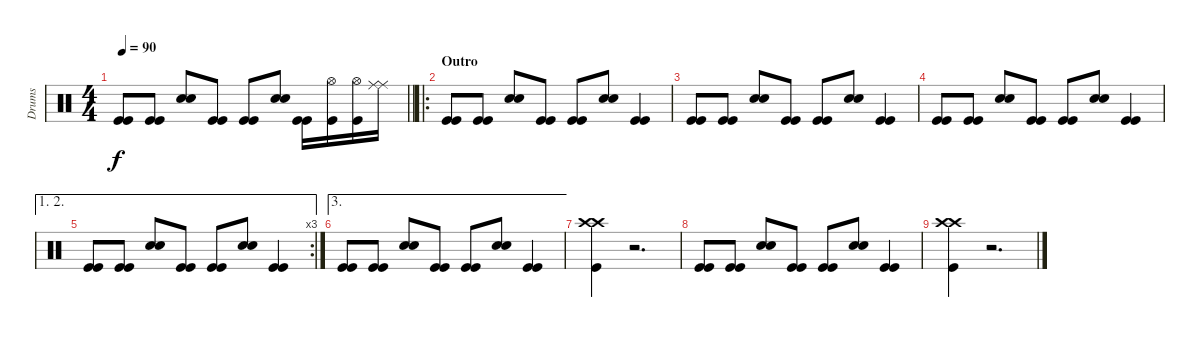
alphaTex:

\track ("Drums" "Drums") {instrument percussion}
\staff {score}
\articulation defaults
\ts (4 4)
\tempo 90
\clef neutral
\barLineRight lightlight
\ks c
("Kick (hit)" "Kick (hit)").8{dy f} ("Kick (hit)" "Kick (hit)").8 ("Electric Snare (hit)" "Electric Snare (hit)").8 ("Kick (hit)" "Kick (hit)").8 ("Kick (hit)" "Kick (hit)").8 ("Electric Snare (hit)" "Electric Snare (hit)").8 ("Kick (hit)" "Kick (hit)").16 ("Hi-Hat (open)" "Kick (hit)").16 ("Hi-Hat (open)" "Kick (hit)").16 ("Ride (middle)" "Ride (middle)").16 |
\ro
\section ("" "Outro")
("Kick (hit)" "Kick (hit)").8 ("Kick (hit)" "Kick (hit)").8 ("Electric Snare (hit)" "Electric Snare (hit)").8 ("Kick (hit)" "Kick (hit)").8 ("Kick (hit)" "Kick (hit)").8 ("Electric Snare (hit)" "Electric Snare (hit)").8 ("Kick (hit)" "Kick (hit)").4 |
("Kick (hit)" "Kick (hit)").8 ("Kick (hit)" "Kick (hit)").8 ("Electric Snare (hit)" "Electric Snare (hit)").8 ("Kick (hit)" "Kick (hit)").8 ("Kick (hit)" "Kick (hit)").8 ("Electric Snare (hit)" "Electric Snare (hit)").8 ("Kick (hit)" "Kick (hit)").4 |
("Kick (hit)" "Kick (hit)").8 ("Kick (hit)" "Kick (hit)").8 ("Electric Snare (hit)" "Electric Snare (hit)").8 ("Kick (hit)" "Kick (hit)").8 ("Kick (hit)" "Kick (hit)").8 ("Electric Snare (hit)" "Electric Snare (hit)").8 ("Kick (hit)" "Kick (hit)").4 |
\ae (1 2)
\rc 3
("Kick (hit)" "Kick (hit)").8 ("Kick (hit)" "Kick (hit)").8 ("Electric Snare (hit)" "Electric Snare (hit)").8 ("Kick (hit)" "Kick (hit)").8 ("Kick (hit)" "Kick (hit)").8 ("Electric Snare (hit)" "Electric Snare (hit)").8 ("Kick (hit)" "Kick (hit)").4 |
\ae 3
("Kick (hit)" "Kick (hit)").8 ("Kick (hit)" "Kick (hit)").8 ("Electric Snare (hit)" "Electric Snare (hit)").8 ("Kick (hit)" "Kick (hit)").8 ("Kick (hit)" "Kick (hit)").8 ("Electric Snare (hit)" "Electric Snare (hit)").8 ("Kick (hit)" "Kick (hit)").4 |
("Crash high (hit)" "Crash high (hit)" "Kick (hit)").4{volume 0} r.2{d} |
("Kick (hit)" "Kick (hit)").8 ("Kick (hit)" "Kick (hit)").8 ("Electric Snare (hit)" "Electric Snare (hit)").8 ("Kick (hit)" "Kick (hit)").8 ("Kick (hit)" "Kick (hit)").8 ("Electric Snare (hit)" "Electric Snare (hit)").8 ("Kick (hit)" "Kick (hit)").4 |
("Crash high (hit)" "Crash high (hit)" "Kick (hit)").4 r.2{d}
